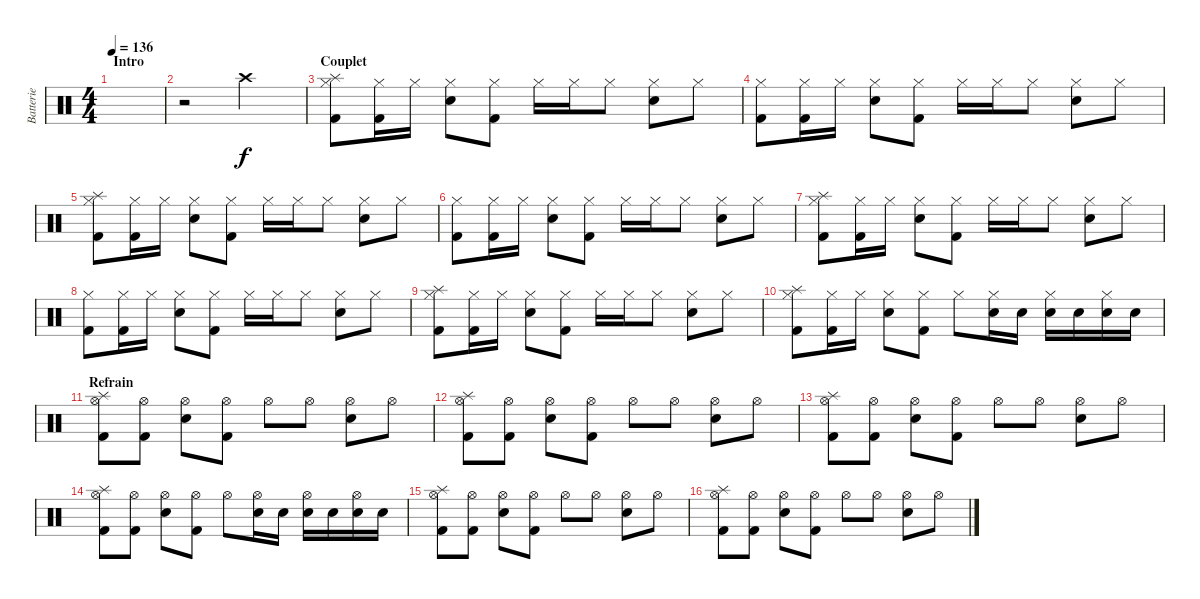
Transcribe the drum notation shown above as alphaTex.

\track ("Batterie" "Batterie") {instrument percussion}
\staff {score}
\articulation defaults
\ts (4 4)
\section ("" "Intro")
\tempo 136
\clef neutral
\ks c
|
r.2{volume 0} "Crash high (hit)".2{volume 16} |
\section ("" "Couplet")
("Splash (hit)" "Hi-Hat (closed)" "Kick (hit) 2").8 ("Hi-Hat (closed)" "Kick (hit) 2").16 "Hi-Hat (closed)".16 ("Hi-Hat (closed)" "Snare (hit) 2").8 ("Hi-Hat (closed)" "Kick (hit) 2").8 "Hi-Hat (closed)".16 "Hi-Hat (closed)".16 "Hi-Hat (closed)".8 ("Hi-Hat (closed)" "Snare (hit) 2").8 "Hi-Hat (closed)".8 |
("Hi-Hat (closed)" "Kick (hit) 2").8 ("Hi-Hat (closed)" "Kick (hit) 2").16 "Hi-Hat (closed)".16 ("Hi-Hat (closed)" "Snare (hit) 2").8 ("Hi-Hat (closed)" "Kick (hit) 2").8 "Hi-Hat (closed)".16 "Hi-Hat (closed)".16 "Hi-Hat (closed)".8 ("Hi-Hat (closed)" "Snare (hit) 2").8 "Hi-Hat (closed)".8 |
("Splash (hit)" "Hi-Hat (closed)" "Kick (hit) 2").8 ("Hi-Hat (closed)" "Kick (hit) 2").16 "Hi-Hat (closed)".16 ("Hi-Hat (closed)" "Snare (hit) 2").8 ("Hi-Hat (closed)" "Kick (hit) 2").8 "Hi-Hat (closed)".16 "Hi-Hat (closed)".16 "Hi-Hat (closed)".8 ("Hi-Hat (closed)" "Snare (hit) 2").8 "Hi-Hat (closed)".8 |
("Hi-Hat (closed)" "Kick (hit) 2").8 ("Hi-Hat (closed)" "Kick (hit) 2").16 "Hi-Hat (closed)".16 ("Hi-Hat (closed)" "Snare (hit) 2").8 ("Hi-Hat (closed)" "Kick (hit) 2").8 "Hi-Hat (closed)".16 "Hi-Hat (closed)".16 "Hi-Hat (closed)".8 ("Hi-Hat (closed)" "Snare (hit) 2").8 "Hi-Hat (closed)".8 |
("Splash (hit)" "Hi-Hat (closed)" "Kick (hit) 2").8 ("Hi-Hat (closed)" "Kick (hit) 2").16 "Hi-Hat (closed)".16 ("Hi-Hat (closed)" "Snare (hit) 2").8 ("Hi-Hat (closed)" "Kick (hit) 2").8 "Hi-Hat (closed)".16 "Hi-Hat (closed)".16 "Hi-Hat (closed)".8 ("Hi-Hat (closed)" "Snare (hit) 2").8 "Hi-Hat (closed)".8 |
("Hi-Hat (closed)" "Kick (hit) 2").8 ("Hi-Hat (closed)" "Kick (hit) 2").16 "Hi-Hat (closed)".16 ("Hi-Hat (closed)" "Snare (hit) 2").8 ("Hi-Hat (closed)" "Kick (hit) 2").8 "Hi-Hat (closed)".16 "Hi-Hat (closed)".16 "Hi-Hat (closed)".8 ("Hi-Hat (closed)" "Snare (hit) 2").8 "Hi-Hat (closed)".8 |
("Splash (hit)" "Hi-Hat (closed)" "Kick (hit) 2").8 ("Hi-Hat (closed)" "Kick (hit) 2").16 "Hi-Hat (closed)".16 ("Hi-Hat (closed)" "Snare (hit) 2").8 ("Hi-Hat (closed)" "Kick (hit) 2").8 "Hi-Hat (closed)".16 "Hi-Hat (closed)".16 "Hi-Hat (closed)".8 ("Hi-Hat (closed)" "Snare (hit) 2").8 "Hi-Hat (closed)".8 |
("Splash (hit)" "Hi-Hat (closed)" "Kick (hit) 2").8 ("Hi-Hat (closed)" "Kick (hit) 2").16 "Hi-Hat (closed)".16 ("Hi-Hat (closed)" "Snare (hit) 2").8 ("Hi-Hat (closed)" "Kick (hit) 2").8 "Hi-Hat (closed)".8 ("Hi-Hat (closed)" "Snare (hit) 2").16 "Snare (hit) 2".16 ("Hi-Hat (closed)" "Snare (hit) 2").16 "Snare (hit) 2".16 ("Hi-Hat (closed)" "Snare (hit) 2").16 "Snare (hit) 2".16 |
\section ("" "Refrain")
("Splash (hit)" "Hi-Hat (open)" "Kick (hit) 2").8 ("Hi-Hat (open)" "Kick (hit) 2").8 ("Hi-Hat (open)" "Snare (hit) 2").8 ("Hi-Hat (open)" "Kick (hit) 2").8 "Hi-Hat (open)".8 "Hi-Hat (open)".8 ("Hi-Hat (open)" "Snare (hit) 2").8 "Hi-Hat (open)".8 |
("Splash (hit)" "Hi-Hat (open)" "Kick (hit) 2").8 ("Hi-Hat (open)" "Kick (hit) 2").8 ("Hi-Hat (open)" "Snare (hit) 2").8 ("Hi-Hat (open)" "Kick (hit) 2").8 "Hi-Hat (open)".8 "Hi-Hat (open)".8 ("Hi-Hat (open)" "Snare (hit) 2").8 "Hi-Hat (open)".8 |
("Splash (hit)" "Hi-Hat (open)" "Kick (hit) 2").8 ("Hi-Hat (open)" "Kick (hit) 2").8 ("Hi-Hat (open)" "Snare (hit) 2").8 ("Hi-Hat (open)" "Kick (hit) 2").8 "Hi-Hat (open)".8 "Hi-Hat (open)".8 ("Hi-Hat (open)" "Snare (hit) 2").8 "Hi-Hat (open)".8 |
("Splash (hit)" "Hi-Hat (open)" "Kick (hit) 2").8 ("Hi-Hat (open)" "Kick (hit) 2").8 ("Hi-Hat (open)" "Snare (hit) 2").8 ("Hi-Hat (open)" "Kick (hit) 2").8 "Hi-Hat (open)".8 ("Hi-Hat (open)" "Snare (hit) 2").16 "Snare (hit) 2".16 ("Hi-Hat (open)" "Snare (hit) 2").16 "Snare (hit) 2".16 ("Hi-Hat (open)" "Snare (hit) 2").16 "Snare (hit) 2".16 |
("Splash (hit)" "Hi-Hat (open)" "Kick (hit) 2").8 ("Hi-Hat (open)" "Kick (hit) 2").8 ("Hi-Hat (open)" "Snare (hit) 2").8 ("Hi-Hat (open)" "Kick (hit) 2").8 "Hi-Hat (open)".8 "Hi-Hat (open)".8 ("Hi-Hat (open)" "Snare (hit) 2").8 "Hi-Hat (open)".8 |
("Splash (hit)" "Hi-Hat (open)" "Kick (hit) 2").8 ("Hi-Hat (open)" "Kick (hit) 2").8 ("Hi-Hat (open)" "Snare (hit) 2").8 ("Hi-Hat (open)" "Kick (hit) 2").8 "Hi-Hat (open)".8 "Hi-Hat (open)".8 ("Hi-Hat (open)" "Snare (hit) 2").8 "Hi-Hat (open)".8
